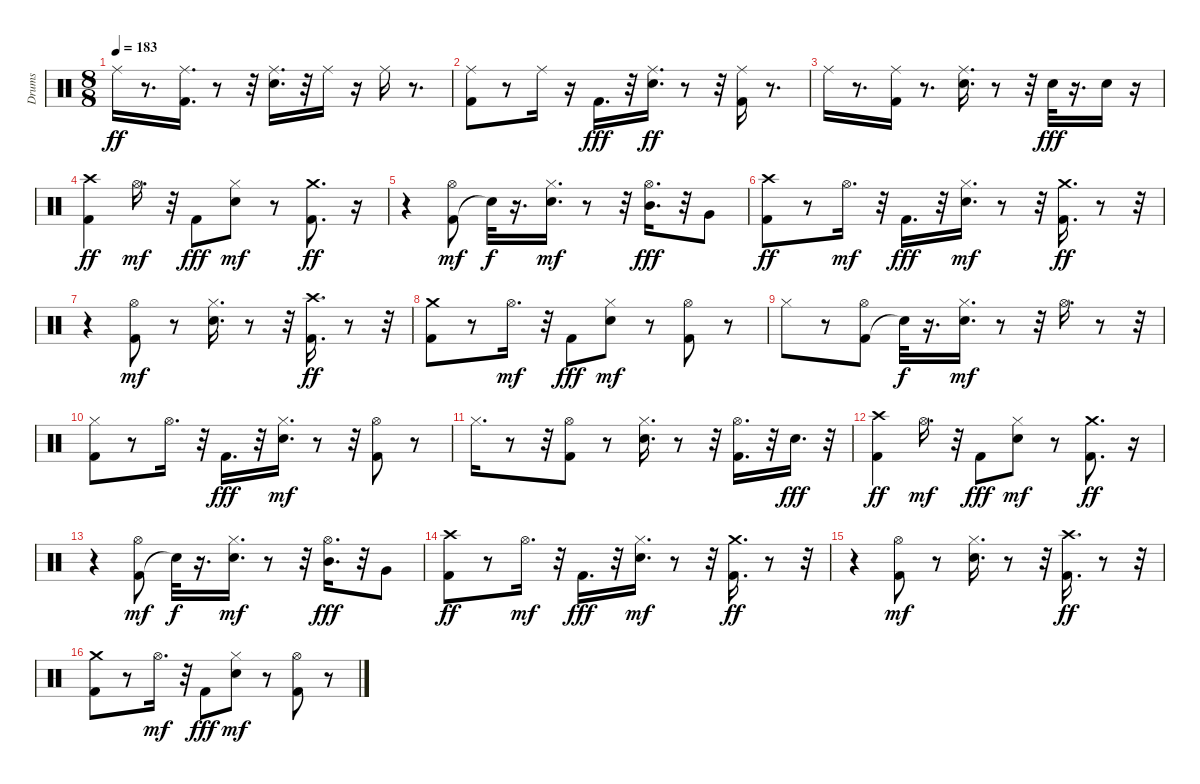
\track ("Drums" "Drums") {instrument percussion}
\staff {score}
\articulation defaults
\ts (8 8)
\tempo 183
\clef neutral
\ks c "Ride (middle)".16{dy ff}
r.8{d} ("Kick (hit) 2" "Ride (middle)").16{d} r.8 r.32 ("Snare (hit) 2" "Ride (middle)").16{d} r.32 "Ride (middle)".16 r.16 "Ride (middle)".16 r.8{d} |
("Kick (hit) 2" "Ride (middle)").8 r.8 "Ride (middle)".16 r.16 "Kick (hit) 2".16{d dy fff} r.32 ("Snare (hit) 2" "Ride (middle)").16{d dy ff} r.8 r.32 ("Kick (hit) 2" "Ride (middle)").16 r.8{d} |
"Ride (middle)".16 r.8{d} ("Kick (hit) 2" "Ride (middle)").16 r.8{d} ("Snare (hit) 2" "Ride (middle)").16{d} r.8 r.32 "Snare (hit) 2".32{dy fff} r.16{d} "Snare (hit) 2".16 r.16 |
("Kick (hit) 2" "Crash high (hit)").4{dy ff} "Hi-Hat (open)".16{d dy mf} r.32 "Kick (hit) 2".8{dy fff} ("Snare (hit) 2" "Hi-Hat (closed)").8{dy mf} r.8 ("Kick (hit) 2" "Crash medium (hit)").8{d dy ff} r.16 |
r.4 ("Kick (hit) 2" "Hi-Hat (open)").8{dy mf} "Snare (hit)"{t}.32{dy f} r.16{d} ("Snare (hit) 2" "Hi-Hat (closed)").16{d dy mf} r.8 r.32 ("Hi-Hat (open)" "Mid Tom (hit)").16{d dy fff} r.32 "Very Low Tom (hit)".8 |
("Kick (hit) 2" "Crash high (hit)").8{dy ff} r.8 "Hi-Hat (open)".16{d dy mf} r.32 "Kick (hit) 2".16{d dy fff} r.32 ("Snare (hit) 2" "Hi-Hat (closed)").16{d dy mf} r.8 r.32 ("Kick (hit) 2" "Crash medium (hit)").16{d dy ff} r.8 r.32 |
r.4 ("Kick (hit) 2" "Hi-Hat (open)").8{dy mf} r.8 ("Snare (hit) 2" "Hi-Hat (closed)").16{d} r.8 r.32 ("Kick (hit) 2" "Crash high (hit)").16{d dy ff} r.8 r.32 |
("Kick (hit) 2" "Crash medium (hit)").8 r.8 "Hi-Hat (open)".16{d dy mf} r.32 "Kick (hit) 2".8{dy fff} ("Snare (hit) 2" "Hi-Hat (closed)").8{dy mf} r.8 ("Kick (hit) 2" "Hi-Hat (open)").8 r.8 |
"Hi-Hat (closed)".8 r.8 ("Kick (hit) 2" "Hi-Hat (open)").8 "Snare (hit)"{t}.32{dy f} r.16{d} ("Snare (hit) 2" "Hi-Hat (closed)").16{d dy mf} r.8 r.32 "Hi-Hat (open)".16{d} r.8 r.32 |
("Kick (hit) 2" "Hi-Hat (closed)").8 r.8 "Hi-Hat (open)".16{d} r.32 "Kick (hit) 2".16{d dy fff} r.32 ("Snare (hit) 2" "Hi-Hat (closed)").16{d dy mf} r.8 r.32 ("Kick (hit) 2" "Hi-Hat (open)").8 r.8 |
"Hi-Hat (closed)".16{d} r.8 r.32 ("Kick (hit) 2" "Hi-Hat (open)").8 r.8 ("Snare (hit) 2" "Hi-Hat (closed)").16{d} r.8 r.32 ("Kick (hit) 2" "Hi-Hat (open)").16{d} r.32 "Snare (hit) 2".16{d dy fff} r.32 |
("Kick (hit) 2" "Crash high (hit)").4{dy ff} "Hi-Hat (open)".16{d dy mf} r.32 "Kick (hit) 2".8{dy fff} ("Snare (hit) 2" "Hi-Hat (closed)").8{dy mf} r.8 ("Kick (hit) 2" "Crash medium (hit)").8{d dy ff} r.16 |
r.4 ("Kick (hit) 2" "Hi-Hat (open)").8{dy mf} "Snare (hit)"{t}.32{dy f} r.16{d} ("Snare (hit) 2" "Hi-Hat (closed)").16{d dy mf} r.8 r.32 ("Hi-Hat (open)" "Mid Tom (hit)").16{d dy fff} r.32 "Very Low Tom (hit)".8 |
("Kick (hit) 2" "Crash high (hit)").8{dy ff} r.8 "Hi-Hat (open)".16{d dy mf} r.32 "Kick (hit) 2".16{d dy fff} r.32 ("Snare (hit) 2" "Hi-Hat (closed)").16{d dy mf} r.8 r.32 ("Kick (hit) 2" "Crash medium (hit)").16{d dy ff} r.8 r.32 |
r.4 ("Kick (hit) 2" "Hi-Hat (open)").8{dy mf} r.8 ("Snare (hit) 2" "Hi-Hat (closed)").16{d} r.8 r.32 ("Kick (hit) 2" "Crash high (hit)").16{d dy ff} r.8 r.32 |
("Kick (hit) 2" "Crash medium (hit)").8 r.8 "Hi-Hat (open)".16{d dy mf} r.32 "Kick (hit) 2".8{dy fff} ("Snare (hit) 2" "Hi-Hat (closed)").8{dy mf} r.8 ("Kick (hit) 2" "Hi-Hat (open)").8 r.8
